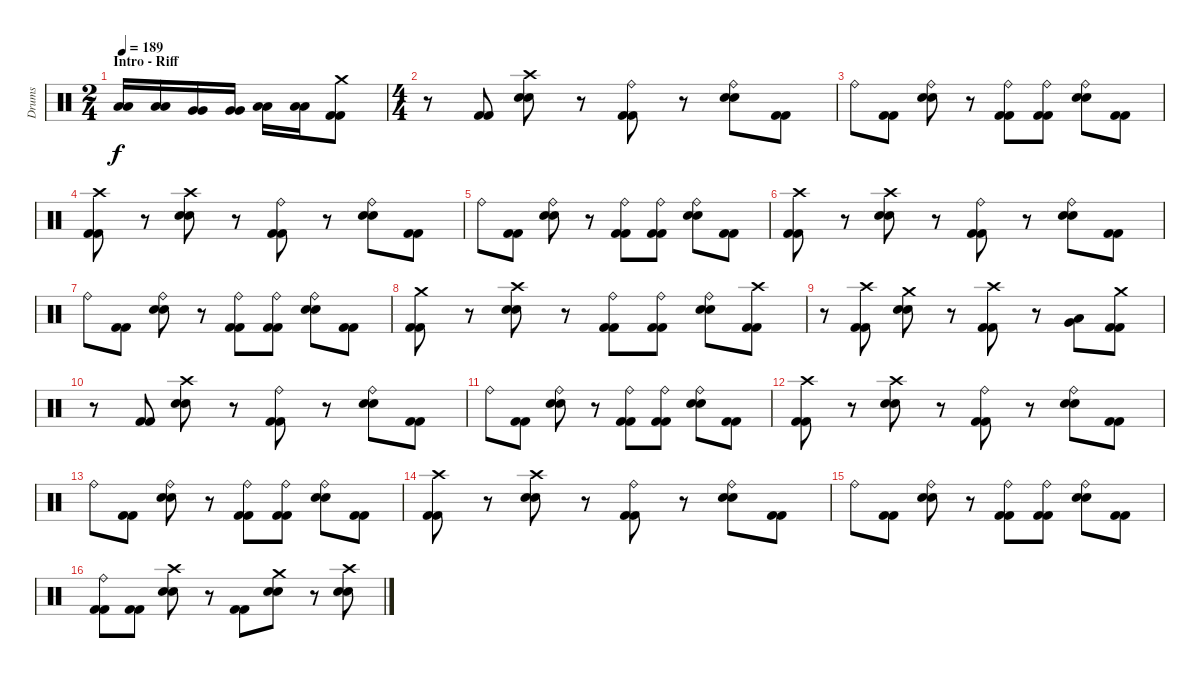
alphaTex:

\track ("Drums" "Drums") {instrument percussion}
\staff {score}
\articulation defaults
\ts (2 4)
\section ("" "Intro - Riff")
\tempo 189
\clef neutral
\ks c
("Low Tom (hit)" "Low Tom (hit)").16{dy f} ("Low Tom (hit)" "Low Tom (hit)").16 ("Very Low Tom (hit)" "Very Low Tom (hit)").16 ("Very Low Tom (hit)" "Very Low Tom (hit)").16 ("Low Floor Tom (hit)" "Low Floor Tom (hit)").16 ("Low Floor Tom (hit)" "Low Floor Tom (hit)").16 ("Crash medium (hit)" "Kick (hit) 2" "Kick (hit) 2").8 |
\ts (4 4)
r.8 ("Kick (hit) 2" "Kick (hit) 2").8 ("Crash high (hit)" "Snare (hit) 2" "Snare (hit) 2").8 r.8 ("Ride (bell)" "Kick (hit) 2" "Kick (hit) 2").8 r.8 ("Ride (bell)" "Snare (hit) 2" "Snare (hit) 2").8 ("Kick (hit) 2" "Kick (hit) 2").8 |
"Ride (bell)".8 ("Kick (hit) 2" "Kick (hit) 2").8 ("Ride (bell)" "Snare (hit) 2" "Snare (hit) 2").8 r.8 ("Ride (bell)" "Kick (hit) 2" "Kick (hit) 2").8 ("Ride (bell)" "Kick (hit) 2" "Kick (hit) 2").8 ("Ride (bell)" "Snare (hit) 2" "Snare (hit) 2").8 ("Kick (hit) 2" "Kick (hit) 2").8 |
("Crash high (hit)" "Kick (hit) 2" "Kick (hit) 2").8 r.8 ("Crash high (hit)" "Snare (hit) 2" "Snare (hit) 2").8 r.8 ("Ride (bell)" "Kick (hit) 2" "Kick (hit) 2").8 r.8 ("Ride (bell)" "Snare (hit) 2" "Snare (hit) 2").8 ("Kick (hit) 2" "Kick (hit) 2").8 |
"Ride (bell)".8 ("Kick (hit) 2" "Kick (hit) 2").8 ("Ride (bell)" "Snare (hit) 2" "Snare (hit) 2").8 r.8 ("Ride (bell)" "Kick (hit) 2" "Kick (hit) 2").8 ("Ride (bell)" "Kick (hit) 2" "Kick (hit) 2").8 ("Ride (bell)" "Snare (hit) 2" "Snare (hit) 2").8 ("Kick (hit) 2" "Kick (hit) 2").8 |
("Crash high (hit)" "Kick (hit) 2" "Kick (hit) 2").8 r.8 ("Crash high (hit)" "Snare (hit) 2" "Snare (hit) 2").8 r.8 ("Ride (bell)" "Kick (hit) 2" "Kick (hit) 2").8 r.8 ("Ride (bell)" "Snare (hit) 2" "Snare (hit) 2").8 ("Kick (hit) 2" "Kick (hit) 2").8 |
"Ride (bell)".8 ("Kick (hit) 2" "Kick (hit) 2").8 ("Ride (bell)" "Snare (hit) 2" "Snare (hit) 2").8 r.8 ("Ride (bell)" "Kick (hit) 2" "Kick (hit) 2").8 ("Ride (bell)" "Kick (hit) 2" "Kick (hit) 2").8 ("Ride (bell)" "Snare (hit) 2" "Snare (hit) 2").8 ("Kick (hit) 2" "Kick (hit) 2").8 |
("Crash medium (hit)" "Kick (hit) 2" "Kick (hit) 2").8 r.8 ("Crash high (hit)" "Snare (hit) 2" "Snare (hit) 2").8 r.8 ("Ride (bell)" "Kick (hit) 2" "Kick (hit) 2").8 ("Ride (bell)" "Kick (hit) 2" "Kick (hit) 2").8 ("Ride (bell)" "Snare (hit) 2" "Snare (hit) 2").8 ("Crash high (hit)" "Kick (hit) 2" "Kick (hit) 2").8 |
r.8 ("Crash high (hit)" "Kick (hit) 2" "Kick (hit) 2").8 ("Crash medium (hit)" "Snare (hit) 2" "Snare (hit) 2").8 r.8 ("Crash high (hit)" "Kick (hit) 2" "Kick (hit) 2").8 r.8 ("Very Low Tom (hit)" "Low Tom (hit)").8 ("Crash medium (hit)" "Kick (hit) 2" "Kick (hit) 2").8 |
r.8 ("Kick (hit) 2" "Kick (hit) 2").8 ("Crash high (hit)" "Snare (hit) 2" "Snare (hit) 2").8 r.8 ("Ride (bell)" "Kick (hit) 2" "Kick (hit) 2").8 r.8 ("Ride (bell)" "Snare (hit) 2" "Snare (hit) 2").8 ("Kick (hit) 2" "Kick (hit) 2").8 |
"Ride (bell)".8 ("Kick (hit) 2" "Kick (hit) 2").8 ("Ride (bell)" "Snare (hit) 2" "Snare (hit) 2").8 r.8 ("Ride (bell)" "Kick (hit) 2" "Kick (hit) 2").8 ("Ride (bell)" "Kick (hit) 2" "Kick (hit) 2").8 ("Ride (bell)" "Snare (hit) 2" "Snare (hit) 2").8 ("Kick (hit) 2" "Kick (hit) 2").8 |
("Crash high (hit)" "Kick (hit) 2" "Kick (hit) 2").8 r.8 ("Crash high (hit)" "Snare (hit) 2" "Snare (hit) 2").8 r.8 ("Ride (bell)" "Kick (hit) 2" "Kick (hit) 2").8 r.8 ("Ride (bell)" "Snare (hit) 2" "Snare (hit) 2").8 ("Kick (hit) 2" "Kick (hit) 2").8 |
"Ride (bell)".8 ("Kick (hit) 2" "Kick (hit) 2").8 ("Ride (bell)" "Snare (hit) 2" "Snare (hit) 2").8 r.8 ("Ride (bell)" "Kick (hit) 2" "Kick (hit) 2").8 ("Ride (bell)" "Kick (hit) 2" "Kick (hit) 2").8 ("Ride (bell)" "Snare (hit) 2" "Snare (hit) 2").8 ("Kick (hit) 2" "Kick (hit) 2").8 |
("Crash high (hit)" "Kick (hit) 2" "Kick (hit) 2").8 r.8 ("Crash high (hit)" "Snare (hit) 2" "Snare (hit) 2").8 r.8 ("Ride (bell)" "Kick (hit) 2" "Kick (hit) 2").8 r.8 ("Ride (bell)" "Snare (hit) 2" "Snare (hit) 2").8 ("Kick (hit) 2" "Kick (hit) 2").8 |
"Ride (bell)".8 ("Kick (hit) 2" "Kick (hit) 2").8 ("Ride (bell)" "Snare (hit) 2" "Snare (hit) 2").8 r.8 ("Ride (bell)" "Kick (hit) 2" "Kick (hit) 2").8 ("Ride (bell)" "Kick (hit) 2" "Kick (hit) 2").8 ("Ride (bell)" "Snare (hit) 2" "Snare (hit) 2").8 ("Kick (hit) 2" "Kick (hit) 2").8 |
("Ride (bell)" "Kick (hit) 2" "Kick (hit) 2").8 ("Kick (hit) 2" "Kick (hit) 2").8 ("Crash high (hit)" "Snare (hit) 2" "Snare (hit) 2").8 r.8 ("Kick (hit) 2" "Kick (hit) 2").8 ("Crash medium (hit)" "Snare (hit) 2" "Snare (hit) 2").8 r.8 ("Crash high (hit)" "Snare (hit) 2" "Snare (hit) 2").8
